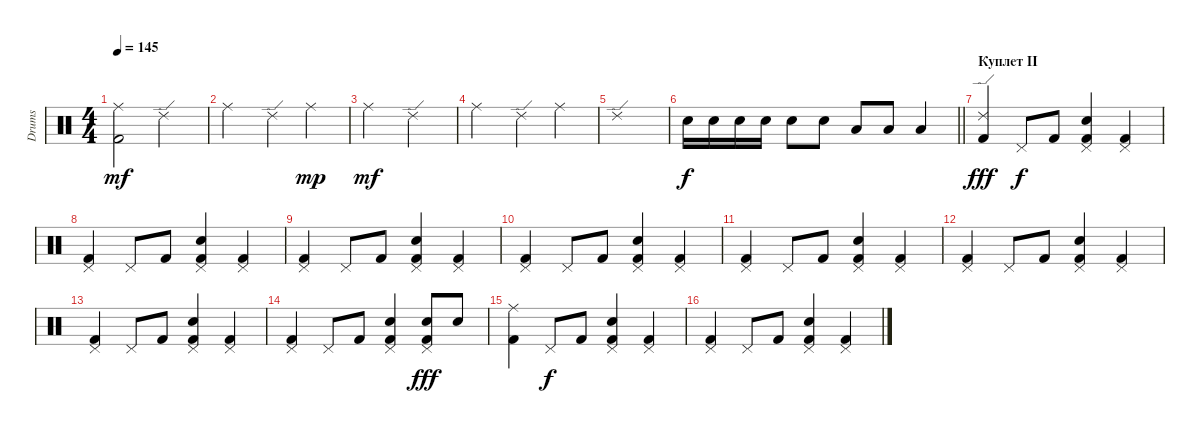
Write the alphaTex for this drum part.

\track ("Drums" "Drums") {instrument percussion}
\staff {score}
\articulation defaults
\ts (4 4)
\tempo 145
\clef neutral
\ks c
("Ride (middle)" "Kick (hit) 2").2{dy mf} "Ride (edge) 2".2 |
"Ride (middle)".2 "Ride (edge) 2".4 "Ride (middle)".4{dy mp} |
"Ride (middle)".2{dy mf} "Ride (edge) 2".2 |
"Ride (middle)".2 "Ride (edge) 2".4 "Ride (middle)".4 |
"Ride (edge) 2".1 |
\barLineRight lightlight "Electric Snare (hit)".16{dy f} "Electric Snare (hit)".16 "Electric Snare (hit)".16 "Electric Snare (hit)".16 "Electric Snare (hit)".8 "Electric Snare (hit)".8 "Low Tom (hit)".8 "Low Tom (hit)".8 "Low Tom (hit)".4
|
\section ("" "Куплет II")
("Ride (edge) 2" "Kick (hit) 2").4{dy fff} "Pedal Hi-Hat (hit)".8{dy f} "Kick (hit) 2".8 ("Pedal Hi-Hat (hit)" "Electric Snare (hit)" "Kick (hit) 2").4 ("Pedal Hi-Hat (hit)" "Kick (hit) 2").4 |
("Pedal Hi-Hat (hit)" "Kick (hit) 2").4 "Pedal Hi-Hat (hit)".8 "Kick (hit) 2".8 ("Pedal Hi-Hat (hit)" "Electric Snare (hit)" "Kick (hit) 2").4 ("Pedal Hi-Hat (hit)" "Kick (hit) 2").4 |
("Pedal Hi-Hat (hit)" "Kick (hit) 2").4 "Pedal Hi-Hat (hit)".8 "Kick (hit) 2".8 ("Pedal Hi-Hat (hit)" "Electric Snare (hit)" "Kick (hit) 2").4 ("Pedal Hi-Hat (hit)" "Kick (hit) 2").4 |
("Pedal Hi-Hat (hit)" "Kick (hit) 2").4 "Pedal Hi-Hat (hit)".8 "Kick (hit) 2".8 ("Pedal Hi-Hat (hit)" "Electric Snare (hit)" "Kick (hit) 2").4 ("Pedal Hi-Hat (hit)" "Kick (hit) 2").4 |
("Pedal Hi-Hat (hit)" "Kick (hit) 2").4 "Pedal Hi-Hat (hit)".8 "Kick (hit) 2".8 ("Pedal Hi-Hat (hit)" "Electric Snare (hit)" "Kick (hit) 2").4 ("Pedal Hi-Hat (hit)" "Kick (hit) 2").4 |
("Pedal Hi-Hat (hit)" "Kick (hit) 2").4 "Pedal Hi-Hat (hit)".8 "Kick (hit) 2".8 ("Pedal Hi-Hat (hit)" "Electric Snare (hit)" "Kick (hit) 2").4 ("Pedal Hi-Hat (hit)" "Kick (hit) 2").4 |
("Pedal Hi-Hat (hit)" "Kick (hit) 2").4 "Pedal Hi-Hat (hit)".8 "Kick (hit) 2".8 ("Pedal Hi-Hat (hit)" "Electric Snare (hit)" "Kick (hit) 2").4 ("Pedal Hi-Hat (hit)" "Kick (hit) 2").4 |
("Pedal Hi-Hat (hit)" "Kick (hit) 2").4 "Pedal Hi-Hat (hit)".8 "Kick (hit) 2".8 ("Pedal Hi-Hat (hit)" "Electric Snare (hit)" "Kick (hit) 2").4 ("Pedal Hi-Hat (hit)" "Electric Snare (hit)" "Kick (hit) 2").8{dy fff} "Electric Snare (hit)".8 |
("Ride (middle)" "Kick (hit) 2").4 "Pedal Hi-Hat (hit)".8{dy f} "Kick (hit) 2".8 ("Pedal Hi-Hat (hit)" "Electric Snare (hit)" "Kick (hit) 2").4 ("Pedal Hi-Hat (hit)" "Kick (hit) 2").4 |
("Pedal Hi-Hat (hit)" "Kick (hit) 2").4 "Pedal Hi-Hat (hit)".8 "Kick (hit) 2".8 ("Pedal Hi-Hat (hit)" "Electric Snare (hit)" "Kick (hit) 2").4 ("Pedal Hi-Hat (hit)" "Kick (hit) 2").4
